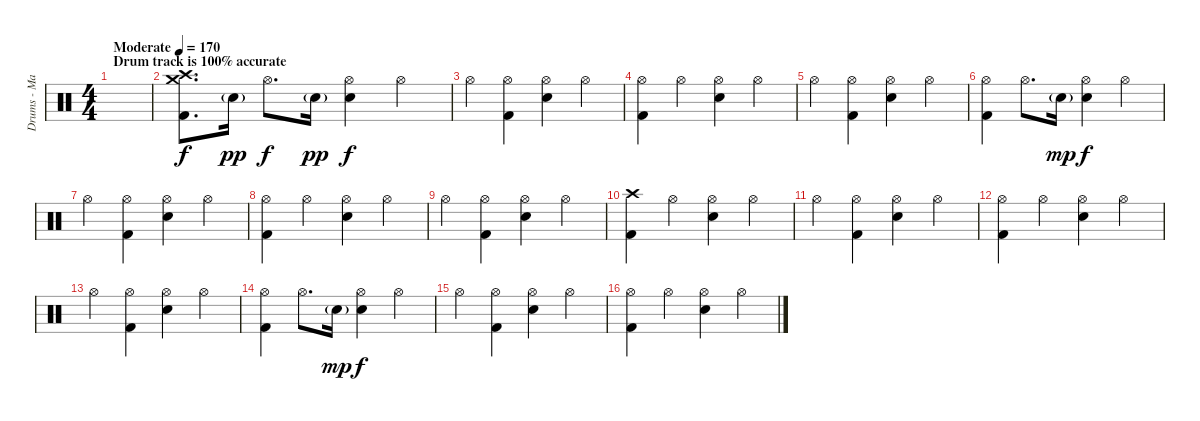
\track ("Drums - Mario Duplantier" "Drums - Ma") {instrument percussion}
\staff {score}
\articulation defaults
\ts (4 4)
\section ("" "Drum track is 100% accurate")
\tempo (170 "Moderate")
\clef neutral
\ks c
|
("Crash high (hit)" "Crash medium (hit)" "Kick (hit) 2").8{d} "Snare (hit) 2"{g}.16{dy pp} "Hi-Hat (open)".8{d dy f} "Snare (hit) 2"{g}.16{dy pp} ("Hi-Hat (open)" "Snare (hit) 2").4{dy f} "Hi-Hat (open)".4 |
"Hi-Hat (open)".4 ("Hi-Hat (open)" "Kick (hit) 2").4 ("Hi-Hat (open)" "Snare (hit) 2").4 "Hi-Hat (open)".4 |
("Hi-Hat (open)" "Kick (hit) 2").4 "Hi-Hat (open)".4 ("Hi-Hat (open)" "Snare (hit) 2").4 "Hi-Hat (open)".4 |
"Hi-Hat (open)".4 ("Hi-Hat (open)" "Kick (hit) 2").4 ("Hi-Hat (open)" "Snare (hit) 2").4 "Hi-Hat (open)".4 |
("Hi-Hat (open)" "Kick (hit) 2").4 "Hi-Hat (open)".8{d} "Snare (hit) 2"{g}.16{dy mp} ("Hi-Hat (open)" "Snare (hit) 2").4{dy f} "Hi-Hat (open)".4 |
"Hi-Hat (open)".4 ("Hi-Hat (open)" "Kick (hit) 2").4 ("Hi-Hat (open)" "Snare (hit) 2").4 "Hi-Hat (open)".4 |
("Hi-Hat (open)" "Kick (hit) 2").4 "Hi-Hat (open)".4 ("Hi-Hat (open)" "Snare (hit) 2").4 "Hi-Hat (open)".4 |
"Hi-Hat (open)".4 ("Hi-Hat (open)" "Kick (hit) 2").4 ("Hi-Hat (open)" "Snare (hit) 2").4 "Hi-Hat (open)".4 |
("Crash high (hit)" "Kick (hit) 2").4 "Hi-Hat (open)".4 ("Hi-Hat (open)" "Snare (hit) 2").4 "Hi-Hat (open)".4 |
"Hi-Hat (open)".4 ("Hi-Hat (open)" "Kick (hit) 2").4 ("Hi-Hat (open)" "Snare (hit) 2").4 "Hi-Hat (open)".4 |
("Hi-Hat (open)" "Kick (hit) 2").4 "Hi-Hat (open)".4 ("Hi-Hat (open)" "Snare (hit) 2").4 "Hi-Hat (open)".4 |
"Hi-Hat (open)".4 ("Hi-Hat (open)" "Kick (hit) 2").4 ("Hi-Hat (open)" "Snare (hit) 2").4 "Hi-Hat (open)".4 |
("Hi-Hat (open)" "Kick (hit) 2").4 "Hi-Hat (open)".8{d} "Snare (hit) 2"{g}.16{dy mp} ("Hi-Hat (open)" "Snare (hit) 2").4{dy f} "Hi-Hat (open)".4 |
"Hi-Hat (open)".4 ("Hi-Hat (open)" "Kick (hit) 2").4 ("Hi-Hat (open)" "Snare (hit) 2").4 "Hi-Hat (open)".4 |
("Hi-Hat (open)" "Kick (hit) 2").4 "Hi-Hat (open)".4 ("Hi-Hat (open)" "Snare (hit) 2").4 "Hi-Hat (open)".4
